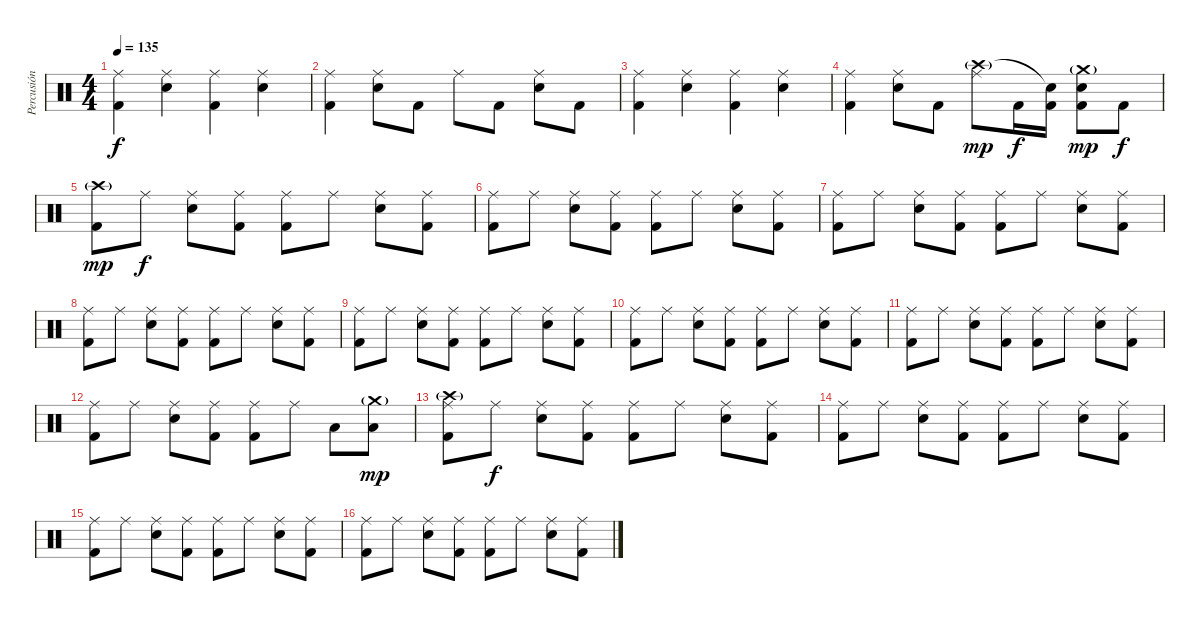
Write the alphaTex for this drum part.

\track ("Percusión" "Percusión") {instrument percussion}
\staff {score}
\articulation defaults
\ts (4 4)
\tempo 135
\clef neutral
\ks c
("Kick (hit) 2" "Ride (middle)").4{dy f} ("Snare (hit) 2" "Ride (middle)").4 ("Kick (hit) 2" "Ride (middle)").4 ("Snare (hit) 2" "Ride (middle)").4 |
("Kick (hit) 2" "Ride (middle)").4 ("Snare (hit) 2" "Ride (middle)").8 "Kick (hit) 2".8 "Ride (middle)".8 "Kick (hit) 2".8 ("Snare (hit) 2" "Ride (middle)").8 "Kick (hit) 2".8 |
("Kick (hit) 2" "Ride (middle)").4 ("Snare (hit) 2" "Ride (middle)").4 ("Kick (hit) 2" "Ride (middle)").4 ("Snare (hit) 2" "Ride (middle)").4 |
("Kick (hit) 2" "Ride (middle)").4 ("Snare (hit) 2" "Ride (middle)").8 "Kick (hit) 2".8 ("Ride (middle)" "Crash high (hit)"{g}).8{dy mp} "Kick (hit) 2".16{dy f} ("Kick (hit) 2" "Snare (hit) 2"{t}).16 ("Kick (hit) 2" "Snare (hit) 2" "Crash medium (hit)"{g}).8{dy mp} "Kick (hit) 2".8{dy f} |
("Kick (hit) 2" "Crash high (hit)"{g}).8{dy mp} "Ride (middle)".8{dy f} ("Snare (hit) 2" "Ride (middle)").8 ("Kick (hit) 2" "Ride (middle)").8 ("Kick (hit) 2" "Ride (middle)").8 "Ride (middle)".8 ("Snare (hit) 2" "Ride (middle)").8 ("Kick (hit) 2" "Ride (middle)").8 |
("Kick (hit) 2" "Ride (middle)").8 "Ride (middle)".8 ("Snare (hit) 2" "Ride (middle)").8 ("Kick (hit) 2" "Ride (middle)").8 ("Kick (hit) 2" "Ride (middle)").8 "Ride (middle)".8 ("Snare (hit) 2" "Ride (middle)").8 ("Kick (hit) 2" "Ride (middle)").8 |
("Kick (hit) 2" "Ride (middle)").8 "Ride (middle)".8 ("Snare (hit) 2" "Ride (middle)").8 ("Kick (hit) 2" "Ride (middle)").8 ("Kick (hit) 2" "Ride (middle)").8 "Ride (middle)".8 ("Snare (hit) 2" "Ride (middle)").8 ("Kick (hit) 2" "Ride (middle)").8 |
("Kick (hit) 2" "Ride (middle)").8 "Ride (middle)".8 ("Snare (hit) 2" "Ride (middle)").8 ("Kick (hit) 2" "Ride (middle)").8 ("Kick (hit) 2" "Ride (middle)").8 "Ride (middle)".8 ("Snare (hit) 2" "Ride (middle)").8 ("Kick (hit) 2" "Ride (middle)").8 |
("Kick (hit) 2" "Ride (middle)").8 "Ride (middle)".8 ("Snare (hit) 2" "Ride (middle)").8 ("Kick (hit) 2" "Ride (middle)").8 ("Kick (hit) 2" "Ride (middle)").8 "Ride (middle)".8 ("Snare (hit) 2" "Ride (middle)").8 ("Kick (hit) 2" "Ride (middle)").8 |
("Kick (hit) 2" "Ride (middle)").8 "Ride (middle)".8 ("Snare (hit) 2" "Ride (middle)").8 ("Kick (hit) 2" "Ride (middle)").8 ("Kick (hit) 2" "Ride (middle)").8 "Ride (middle)".8 ("Snare (hit) 2" "Ride (middle)").8 ("Kick (hit) 2" "Ride (middle)").8 |
("Kick (hit) 2" "Ride (middle)").8 "Ride (middle)".8 ("Snare (hit) 2" "Ride (middle)").8 ("Kick (hit) 2" "Ride (middle)").8 ("Kick (hit) 2" "Ride (middle)").8 "Ride (middle)".8 ("Snare (hit) 2" "Ride (middle)").8 ("Kick (hit) 2" "Ride (middle)").8 |
("Kick (hit) 2" "Ride (middle)").8 "Ride (middle)".8 ("Snare (hit) 2" "Ride (middle)").8 ("Kick (hit) 2" "Ride (middle)").8 ("Kick (hit) 2" "Ride (middle)").8 "Ride (middle)".8 "Low Floor Tom (hit)".8 ("Low Floor Tom (hit)" "Crash medium (hit)"{g}).8{dy mp} |
("Kick (hit) 2" "Ride (middle)" "Crash high (hit)"{g}).8 "Ride (middle)".8{dy f} ("Snare (hit) 2" "Ride (middle)").8 ("Kick (hit) 2" "Ride (middle)").8 ("Kick (hit) 2" "Ride (middle)").8 "Ride (middle)".8 ("Snare (hit) 2" "Ride (middle)").8 ("Kick (hit) 2" "Ride (middle)").8 |
("Kick (hit) 2" "Ride (middle)").8 "Ride (middle)".8 ("Snare (hit) 2" "Ride (middle)").8 ("Kick (hit) 2" "Ride (middle)").8 ("Kick (hit) 2" "Ride (middle)").8 "Ride (middle)".8 ("Snare (hit) 2" "Ride (middle)").8 ("Kick (hit) 2" "Ride (middle)").8 |
("Kick (hit) 2" "Ride (middle)").8 "Ride (middle)".8 ("Snare (hit) 2" "Ride (middle)").8 ("Kick (hit) 2" "Ride (middle)").8 ("Kick (hit) 2" "Ride (middle)").8 "Ride (middle)".8 ("Snare (hit) 2" "Ride (middle)").8 ("Kick (hit) 2" "Ride (middle)").8 |
("Kick (hit) 2" "Ride (middle)").8 "Ride (middle)".8 ("Snare (hit) 2" "Ride (middle)").8 ("Kick (hit) 2" "Ride (middle)").8 ("Kick (hit) 2" "Ride (middle)").8 "Ride (middle)".8 ("Snare (hit) 2" "Ride (middle)").8 ("Kick (hit) 2" "Ride (middle)").8
